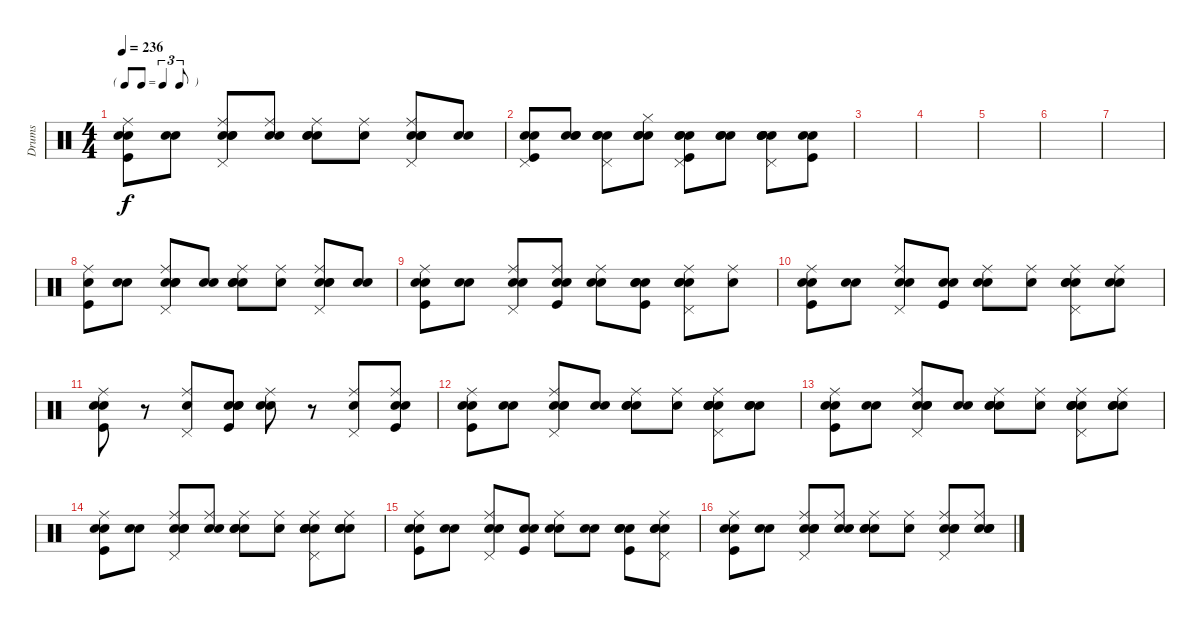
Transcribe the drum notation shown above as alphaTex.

\track ("Drums" "Drums") {instrument percussion}
\staff {score}
\articulation defaults
\ts (4 4)
\tf triplet8th
\tempo 236
\clef neutral
\ks c
("Snare (hit)" "Kick (hit)" "Electric Snare (hit)" "Ride (middle)").8{dy f} ("Snare (hit)" "Electric Snare (hit)").8 ("Snare (hit)" "Snare (hit) 2" "Electric Snare (hit)" "Ride (middle)" "Pedal Hi-Hat (hit)").8 ("Snare (hit)" "Snare (hit) 2" "Ride (middle)").8 ("Snare (hit)" "Snare (hit) 2" "Electric Snare (hit)" "Ride (middle)").8 ("Snare (hit)" "Ride (middle)").8 ("Snare (hit)" "Snare (hit) 2" "Electric Snare (hit)" "Ride (middle)" "Pedal Hi-Hat (hit)").8 ("Snare (hit)" "Snare (hit) 2").8 |
("Snare (hit)" "Kick (hit)" "Electric Snare (hit)" "Pedal Hi-Hat (hit)").8 ("Snare (hit)" "Electric Snare (hit)" "Hand Clap (hit)").8 ("Snare (hit)" "Snare (hit) 2" "Electric Snare (hit)" "Pedal Hi-Hat (hit)").8 ("Snare (hit)" "Snare (hit) 2" "Hi-Hat (closed)" "Hand Clap (hit)").8 ("Snare (hit)" "Kick (hit)" "Electric Snare (hit)" "Pedal Hi-Hat (hit)" "Hand Clap (hit)").8 ("Snare (hit)" "Electric Snare (hit)" "Hand Clap (hit)").8 ("Snare (hit)" "Snare (hit) 2" "Electric Snare (hit)" "Pedal Hi-Hat (hit)" "Hand Clap (hit)").8 ("Snare (hit)" "Kick (hit)" "Hand Clap (hit)").8 |
|
|
|
|
|
("Kick (hit)" "Electric Snare (hit)" "Ride (middle)").8 ("Snare (hit)" "Electric Snare (hit)").8 ("Snare (hit)" "Snare (hit) 2" "Electric Snare (hit)" "Ride (middle)" "Pedal Hi-Hat (hit)").8 ("Snare (hit)" "Snare (hit) 2").8 ("Snare (hit)" "Snare (hit) 2" "Electric Snare (hit)" "Ride (middle)").8 ("Snare (hit)" "Ride (middle)").8 ("Snare (hit)" "Snare (hit) 2" "Electric Snare (hit)" "Ride (middle)" "Pedal Hi-Hat (hit)").8 ("Snare (hit)" "Snare (hit) 2").8 |
("Snare (hit)" "Kick (hit)" "Electric Snare (hit)" "Ride (middle)").8 ("Snare (hit)" "Electric Snare (hit)").8 ("Snare (hit)" "Snare (hit) 2" "Ride (middle)" "Pedal Hi-Hat (hit)").8 ("Snare (hit)" "Kick (hit)" "Snare (hit) 2" "Ride (middle)").8 ("Snare (hit)" "Electric Snare (hit)" "Ride (middle)").8 ("Snare (hit)" "Kick (hit)" "Electric Snare (hit)" "Hand Clap (hit)").8 ("Snare (hit)" "Electric Snare (hit)" "Ride (middle)" "Pedal Hi-Hat (hit)" "Hand Clap (hit)").8 ("Snare (hit)" "Ride (middle)").8 |
("Snare (hit)" "Kick (hit)" "Electric Snare (hit)" "Ride (middle)").8 ("Snare (hit)" "Electric Snare (hit)").8 ("Snare (hit)" "Snare (hit) 2" "Ride (middle)" "Pedal Hi-Hat (hit)").8 ("Snare (hit)" "Kick (hit)" "Hand Clap (hit)").8 ("Snare (hit)" "Electric Snare (hit)" "Ride (middle)").8 ("Snare (hit)" "Ride (middle)").8 ("Snare (hit)" "Snare (hit) 2" "Ride (middle)" "Pedal Hi-Hat (hit)" "Hand Clap (hit)").8 ("Snare (hit)" "Snare (hit) 2" "Ride (middle)").8 |
("Snare (hit)" "Kick (hit)" "Electric Snare (hit)" "Ride (middle)").8 r.8 ("Snare (hit) 2" "Ride (middle)" "Pedal Hi-Hat (hit)").8 ("Snare (hit)" "Kick (hit)" "Snare (hit) 2" "Hand Clap (hit)").8 ("Snare (hit)" "Electric Snare (hit)" "Ride (middle)").8 r.8 ("Snare (hit) 2" "Ride (middle)" "Pedal Hi-Hat (hit)").8 ("Snare (hit)" "Kick (hit)" "Ride (middle)" "Hand Clap (hit)").8 |
("Snare (hit)" "Kick (hit)" "Electric Snare (hit)" "Ride (middle)").8 ("Snare (hit)" "Electric Snare (hit)").8 ("Snare (hit)" "Snare (hit) 2" "Electric Snare (hit)" "Ride (middle)" "Pedal Hi-Hat (hit)").8 ("Snare (hit)" "Snare (hit) 2").8 ("Snare (hit)" "Snare (hit) 2" "Electric Snare (hit)" "Ride (middle)").8 ("Snare (hit)" "Ride (middle)").8 ("Snare (hit)" "Snare (hit) 2" "Electric Snare (hit)" "Ride (middle)" "Pedal Hi-Hat (hit)" "Hand Clap (hit)").8 ("Snare (hit)" "Snare (hit) 2" "Hand Clap (hit)").8 |
("Snare (hit)" "Kick (hit)" "Electric Snare (hit)" "Ride (middle)").8 ("Snare (hit)" "Electric Snare (hit)").8 ("Snare (hit)" "Snare (hit) 2" "Electric Snare (hit)" "Ride (middle)" "Pedal Hi-Hat (hit)").8 ("Snare (hit)" "Snare (hit) 2").8 ("Snare (hit)" "Snare (hit) 2" "Electric Snare (hit)" "Ride (middle)").8 ("Snare (hit)" "Ride (middle)").8 ("Snare (hit)" "Snare (hit) 2" "Electric Snare (hit)" "Ride (middle)" "Pedal Hi-Hat (hit)" "Hand Clap (hit)").8 ("Snare (hit)" "Snare (hit) 2" "Ride (middle)" "Hand Clap (hit)").8 |
("Snare (hit)" "Kick (hit)" "Electric Snare (hit)" "Ride (middle)").8 ("Snare (hit)" "Electric Snare (hit)").8 ("Snare (hit)" "Snare (hit) 2" "Electric Snare (hit)" "Ride (middle)" "Pedal Hi-Hat (hit)").8 ("Snare (hit)" "Snare (hit) 2" "Ride (middle)").8 ("Snare (hit)" "Snare (hit) 2" "Electric Snare (hit)" "Ride (middle)").8 ("Snare (hit)" "Ride (middle)").8 ("Snare (hit)" "Snare (hit) 2" "Electric Snare (hit)" "Ride (middle)" "Pedal Hi-Hat (hit)" "Hand Clap (hit)").8 ("Snare (hit)" "Snare (hit) 2" "Ride (middle)" "Hand Clap (hit)").8 |
("Snare (hit)" "Kick (hit)" "Electric Snare (hit)" "Ride (middle)").8 ("Snare (hit)" "Electric Snare (hit)").8 ("Snare (hit)" "Snare (hit) 2" "Ride (middle)" "Pedal Hi-Hat (hit)").8 ("Snare (hit)" "Kick (hit)" "Hand Clap (hit)").8 ("Snare (hit)" "Electric Snare (hit)" "Ride (middle)").8 ("Snare (hit)" "Snare (hit) 2").8 ("Snare (hit)" "Kick (hit)" "Electric Snare (hit)" "Hand Clap (hit)").8 ("Snare (hit)" "Electric Snare (hit)" "Ride (middle)" "Pedal Hi-Hat (hit)" "Hand Clap (hit)").8 |
("Snare (hit)" "Kick (hit)" "Electric Snare (hit)" "Ride (middle)").8 ("Snare (hit)" "Electric Snare (hit)").8 ("Snare (hit)" "Snare (hit) 2" "Electric Snare (hit)" "Ride (middle)" "Pedal Hi-Hat (hit)").8 ("Snare (hit)" "Snare (hit) 2" "Ride (middle)").8 ("Snare (hit)" "Snare (hit) 2" "Electric Snare (hit)" "Ride (middle)").8 ("Snare (hit)" "Ride (middle)").8 ("Snare (hit)" "Snare (hit) 2" "Electric Snare (hit)" "Ride (middle)" "Pedal Hi-Hat (hit)").8 ("Snare (hit)" "Snare (hit) 2" "Ride (middle)" "Hand Clap (hit)").8
